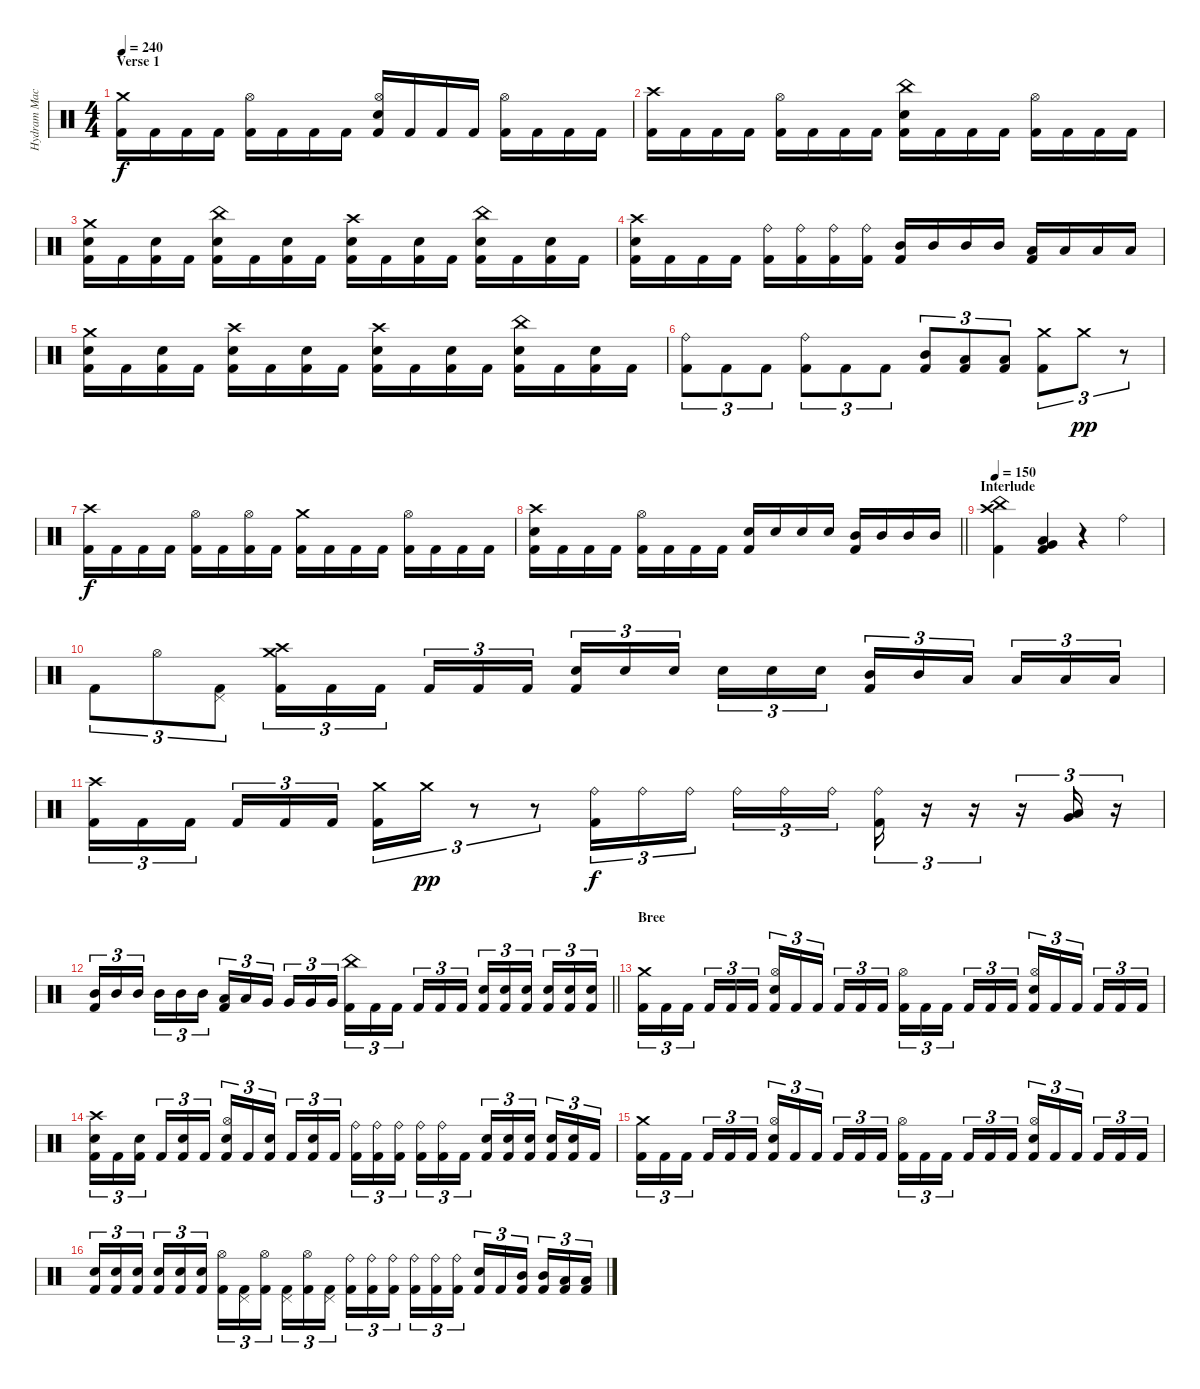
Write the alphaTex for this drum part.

\track ("Hydram Machine" "Hydram Mac") {instrument percussion}
\staff {score}
\articulation defaults
\ts (4 4)
\section ("" "Verse 1")
\tempo 240
\clef neutral
\ks c
("Crash medium (hit)" "Kick (hit) 2").16{dy f} "Kick (hit) 2".16 "Kick (hit) 2".16 "Kick (hit) 2".16 ("Hi-Hat (open)" "Kick (hit) 2").16 "Kick (hit) 2".16 "Kick (hit) 2".16 "Kick (hit) 2".16 ("Hi-Hat (open)" "Electric Snare (hit)" "Kick (hit) 2").16 "Kick (hit) 2".16 "Kick (hit) 2".16 "Kick (hit) 2".16 ("Hi-Hat (open)" "Kick (hit) 2").16 "Kick (hit) 2".16 "Kick (hit) 2".16 "Kick (hit) 2".16 |
("Crash high (hit)" "Kick (hit) 2").16 "Kick (hit) 2".16 "Kick (hit) 2".16 "Kick (hit) 2".16 ("Hi-Hat (open)" "Kick (hit) 2").16 "Kick (hit) 2".16 "Kick (hit) 2".16 "Kick (hit) 2".16 ("China (hit)" "Electric Snare (hit)" "Kick (hit) 2").16 "Kick (hit) 2".16 "Kick (hit) 2".16 "Kick (hit) 2".16 ("Hi-Hat (open)" "Kick (hit) 2").16 "Kick (hit) 2".16 "Kick (hit) 2".16 "Kick (hit) 2".16 |
("Crash medium (hit)" "Electric Snare (hit)" "Kick (hit) 2").16 "Kick (hit) 2".16 ("Electric Snare (hit)" "Kick (hit) 2").16 "Kick (hit) 2".16 ("China (hit)" "Electric Snare (hit)" "Kick (hit) 2").16 "Kick (hit) 2".16 ("Electric Snare (hit)" "Kick (hit) 2").16 "Kick (hit) 2".16 ("Crash high (hit)" "Electric Snare (hit)" "Kick (hit) 2").16 "Kick (hit) 2".16 ("Electric Snare (hit)" "Kick (hit) 2").16 "Kick (hit) 2".16 ("China (hit)" "Electric Snare (hit)" "Kick (hit) 2").16 "Kick (hit) 2".16 ("Electric Snare (hit)" "Kick (hit) 2").16 "Kick (hit) 2".16 |
("Crash high (hit)" "Electric Snare (hit)" "Kick (hit) 2").16 "Kick (hit) 2".16 "Kick (hit) 2".16 "Kick (hit) 2".16 ("Ride (bell)" "Kick (hit) 2").16 ("Ride (bell)" "Kick (hit) 2").16 ("Ride (bell)" "Kick (hit) 2").16 ("Ride (bell)" "Kick (hit) 2").16 ("Mid Tom (hit)" "Kick (hit) 2").16 "Mid Tom (hit)".16 "Mid Tom (hit)".16 "Mid Tom (hit)".16 ("Low Tom (hit)" "Kick (hit) 2").16 "Low Tom (hit)".16 "Low Tom (hit)".16 "Low Tom (hit)".16 |
("Crash medium (hit)" "Electric Snare (hit)" "Kick (hit) 2").16 "Kick (hit) 2".16 ("Electric Snare (hit)" "Kick (hit) 2").16 "Kick (hit) 2".16 ("Crash high (hit)" "Electric Snare (hit)" "Kick (hit) 2").16 "Kick (hit) 2".16 ("Electric Snare (hit)" "Kick (hit) 2").16 "Kick (hit) 2".16 ("Crash high (hit)" "Electric Snare (hit)" "Kick (hit) 2").16 "Kick (hit) 2".16 ("Electric Snare (hit)" "Kick (hit) 2").16 "Kick (hit) 2".16 ("China (hit)" "Electric Snare (hit)" "Kick (hit) 2").16 "Kick (hit) 2".16 ("Electric Snare (hit)" "Kick (hit) 2").16 "Kick (hit) 2".16 |
("Ride (bell)" "Kick (hit) 2").8{tu (3 2)} "Kick (hit) 2".8{tu (3 2)} "Kick (hit) 2".8{tu (3 2)} ("Ride (bell)" "Kick (hit) 2").8{tu (3 2)} "Kick (hit) 2".8{tu (3 2)} "Kick (hit) 2".8{tu (3 2)} ("Mid Tom (hit)" "Kick (hit) 2").8{tu (3 2)} ("Low Tom (hit)" "Kick (hit) 2").8{tu (3 2)} ("Low Tom (hit)" "Kick (hit) 2").8{tu (3 2)} ("Crash medium (hit)" "Kick (hit) 2").8{tu (3 2)} "Crash medium (hit)".8{tu (3 2) dy pp} r.8{tu (3 2)} |
("Crash high (hit)" "Kick (hit) 2").16{dy f} "Kick (hit) 2".16 "Kick (hit) 2".16 "Kick (hit) 2".16 ("Hi-Hat (open)" "Kick (hit) 2").16 "Kick (hit) 2".16 ("Hi-Hat (open)" "Kick (hit) 2").16 "Kick (hit) 2".16 ("Crash medium (hit)" "Kick (hit) 2").16 "Kick (hit) 2".16 "Kick (hit) 2".16 "Kick (hit) 2".16 ("Hi-Hat (open)" "Kick (hit) 2").16 "Kick (hit) 2".16 "Kick (hit) 2".16 "Kick (hit) 2".16 |
\barLineRight lightlight
("Crash high (hit)" "Electric Snare (hit)" "Kick (hit) 2").16 "Kick (hit) 2".16 "Kick (hit) 2".16 "Kick (hit) 2".16 ("Hi-Hat (open)" "Kick (hit) 2").16 "Kick (hit) 2".16 "Kick (hit) 2".16 "Kick (hit) 2".16 ("Electric Snare (hit)" "Kick (hit) 2").16 "Electric Snare (hit)".16 "Electric Snare (hit)".16 "Electric Snare (hit)".16 ("Mid Tom (hit)" "Kick (hit) 2").16 "Mid Tom (hit)".16 "Mid Tom (hit)".16 "Mid Tom (hit)".16 |
\section ("" "Interlude")
\tempo 150
("China (hit)" "Crash high (hit)" "Kick (hit) 2").4 ("Very Low Tom (hit)" "Low Floor Tom (hit)" "Kick (hit) 2").4 r.4 "Ride (bell)".4 |
"Kick (hit) 2".8{tu (3 2)} "Hi-Hat (open)".8{tu (3 2)} ("Pedal Hi-Hat (hit)" "Kick (hit) 2").8{tu (3 2)} ("Crash high (hit)" "Crash medium (hit)" "Kick (hit) 2").16{tu (3 2)} "Kick (hit) 2".16{tu (3 2)} "Kick (hit) 2".16{tu (3 2) beam splitsecondary} "Kick (hit) 2".16{tu (3 2)} "Kick (hit) 2".16{tu (3 2)} "Kick (hit) 2".16{tu (3 2)} ("Electric Snare (hit)" "Kick (hit) 2").16{tu (3 2)} "Electric Snare (hit)".16{tu (3 2)} "Electric Snare (hit)".16{tu (3 2) beam splitsecondary} "Electric Snare (hit)".16{tu (3 2)} "Electric Snare (hit)".16{tu (3 2)} "Electric Snare (hit)".16{tu (3 2)} ("Mid Tom (hit)" "Kick (hit) 2").16{tu (3 2)} "Mid Tom (hit)".16{tu (3 2)} "Low Tom (hit)".16{tu (3 2) beam splitsecondary} "Low Tom (hit)".16{tu (3 2)} "Low Tom (hit)".16{tu (3 2)} "Low Tom (hit)".16{tu (3 2)} |
("Crash high (hit)" "Kick (hit) 2").16{tu (3 2)} "Kick (hit) 2".16{tu (3 2)} "Kick (hit) 2".16{tu (3 2) beam splitsecondary} "Kick (hit) 2".16{tu (3 2)} "Kick (hit) 2".16{tu (3 2)} "Kick (hit) 2".16{tu (3 2)} ("Crash medium (hit)" "Kick (hit) 2").16{tu (3 2)} "Crash medium (hit)".16{tu (3 2) dy pp} r.8{tu (3 2)} r.8{tu (3 2)} ("Ride (bell)" "Kick (hit) 2").16{tu (3 2) dy f} "Ride (bell)".16{tu (3 2)} "Ride (bell)".16{tu (3 2) beam splitsecondary} "Ride (bell)".16{tu (3 2)} "Ride (bell)".16{tu (3 2)} "Ride (bell)".16{tu (3 2)} ("Ride (bell)" "Kick (hit) 2").16{tu (3 2)} r.16{tu (3 2)} r.16{tu (3 2)} r.16{tu (3 2)} ("Very Low Tom (hit)" "Low Floor Tom (hit)").16{tu (3 2)} r.16{tu (3 2)} |
\barLineRight lightlight
("Mid Tom (hit)" "Kick (hit) 2").16{tu (3 2)} "Mid Tom (hit)".16{tu (3 2)} "Mid Tom (hit)".16{tu (3 2) beam splitsecondary} "Mid Tom (hit)".16{tu (3 2)} "Mid Tom (hit)".16{tu (3 2)} "Mid Tom (hit)".16{tu (3 2)} ("Low Tom (hit)" "Kick (hit) 2").16{tu (3 2)} "Low Tom (hit)".16{tu (3 2)} "Very Low Tom (hit)".16{tu (3 2) beam splitsecondary} "Very Low Tom (hit)".16{tu (3 2)} "Very Low Tom (hit)".16{tu (3 2)} "Very Low Tom (hit)".16{tu (3 2)} ("China (hit)" "Kick (hit) 2").16{tu (3 2)} "Kick (hit) 2".16{tu (3 2)} "Kick (hit) 2".16{tu (3 2) beam splitsecondary} "Kick (hit) 2".16{tu (3 2)} "Kick (hit) 2".16{tu (3 2)} "Kick (hit) 2".16{tu (3 2)} ("Electric Snare (hit)" "Kick (hit) 2").16{tu (3 2)} ("Electric Snare (hit)" "Kick (hit) 2").16{tu (3 2)} ("Electric Snare (hit)" "Kick (hit) 2").16{tu (3 2) beam splitsecondary} ("Electric Snare (hit)" "Kick (hit) 2").16{tu (3 2)} ("Electric Snare (hit)" "Kick (hit) 2").16{tu (3 2)} ("Electric Snare (hit)" "Kick (hit) 2").16{tu (3 2)} |
\section ("" "Bree")
("Crash medium (hit)" "Kick (hit) 2").16{tu (3 2)} "Kick (hit) 2".16{tu (3 2)} "Kick (hit) 2".16{tu (3 2) beam splitsecondary} "Kick (hit) 2".16{tu (3 2)} "Kick (hit) 2".16{tu (3 2)} "Kick (hit) 2".16{tu (3 2)} ("Hi-Hat (open)" "Electric Snare (hit)" "Kick (hit) 2").16{tu (3 2)} "Kick (hit) 2".16{tu (3 2)} "Kick (hit) 2".16{tu (3 2) beam splitsecondary} "Kick (hit) 2".16{tu (3 2)} "Kick (hit) 2".16{tu (3 2)} "Kick (hit) 2".16{tu (3 2)} ("Hi-Hat (open)" "Kick (hit) 2").16{tu (3 2)} "Kick (hit) 2".16{tu (3 2)} "Kick (hit) 2".16{tu (3 2) beam splitsecondary} "Kick (hit) 2".16{tu (3 2)} "Kick (hit) 2".16{tu (3 2)} "Kick (hit) 2".16{tu (3 2)} ("Hi-Hat (open)" "Electric Snare (hit)" "Kick (hit) 2").16{tu (3 2)} "Kick (hit) 2".16{tu (3 2)} "Kick (hit) 2".16{tu (3 2) beam splitsecondary} "Kick (hit) 2".16{tu (3 2)} "Kick (hit) 2".16{tu (3 2)} "Kick (hit) 2".16{tu (3 2)} |
("Crash high (hit)" "Electric Snare (hit)" "Kick (hit) 2").16{tu (3 2)} "Kick (hit) 2".16{tu (3 2)} ("Electric Snare (hit)" "Kick (hit) 2").16{tu (3 2) beam splitsecondary} "Kick (hit) 2".16{tu (3 2)} ("Electric Snare (hit)" "Kick (hit) 2").16{tu (3 2)} "Kick (hit) 2".16{tu (3 2)} ("Hi-Hat (open)" "Electric Snare (hit)" "Kick (hit) 2").16{tu (3 2)} "Kick (hit) 2".16{tu (3 2)} ("Electric Snare (hit)" "Kick (hit) 2").16{tu (3 2) beam splitsecondary} "Kick (hit) 2".16{tu (3 2)} ("Electric Snare (hit)" "Kick (hit) 2").16{tu (3 2)} "Kick (hit) 2".16{tu (3 2)} ("Ride (bell)" "Kick (hit) 2").16{tu (3 2)} ("Ride (bell)" "Kick (hit) 2").16{tu (3 2)} ("Ride (bell)" "Kick (hit) 2").16{tu (3 2) beam splitsecondary} ("Ride (bell)" "Kick (hit) 2").16{tu (3 2)} ("Ride (bell)" "Kick (hit) 2").16{tu (3 2)} "Kick (hit) 2".16{tu (3 2)} ("Electric Snare (hit)" "Kick (hit) 2").16{tu (3 2)} ("Electric Snare (hit)" "Kick (hit) 2").16{tu (3 2)} ("Electric Snare (hit)" "Kick (hit) 2").16{tu (3 2) beam splitsecondary} ("Electric Snare (hit)" "Kick (hit) 2").16{tu (3 2)} ("Electric Snare (hit)" "Kick (hit) 2").16{tu (3 2)} "Kick (hit) 2".16{tu (3 2)} |
("Crash medium (hit)" "Kick (hit) 2").16{tu (3 2)} "Kick (hit) 2".16{tu (3 2)} "Kick (hit) 2".16{tu (3 2) beam splitsecondary} "Kick (hit) 2".16{tu (3 2)} "Kick (hit) 2".16{tu (3 2)} "Kick (hit) 2".16{tu (3 2)} ("Hi-Hat (open)" "Electric Snare (hit)" "Kick (hit) 2").16{tu (3 2)} "Kick (hit) 2".16{tu (3 2)} "Kick (hit) 2".16{tu (3 2) beam splitsecondary} "Kick (hit) 2".16{tu (3 2)} "Kick (hit) 2".16{tu (3 2)} "Kick (hit) 2".16{tu (3 2)} ("Hi-Hat (open)" "Kick (hit) 2").16{tu (3 2)} "Kick (hit) 2".16{tu (3 2)} "Kick (hit) 2".16{tu (3 2) beam splitsecondary} "Kick (hit) 2".16{tu (3 2)} "Kick (hit) 2".16{tu (3 2)} "Kick (hit) 2".16{tu (3 2)} ("Hi-Hat (open)" "Electric Snare (hit)" "Kick (hit) 2").16{tu (3 2)} "Kick (hit) 2".16{tu (3 2)} "Kick (hit) 2".16{tu (3 2) beam splitsecondary} "Kick (hit) 2".16{tu (3 2)} "Kick (hit) 2".16{tu (3 2)} "Kick (hit) 2".16{tu (3 2)} |
("Electric Snare (hit)" "Kick (hit) 2").16{tu (3 2)} ("Electric Snare (hit)" "Kick (hit) 2").16{tu (3 2)} ("Electric Snare (hit)" "Kick (hit) 2").16{tu (3 2) beam splitsecondary} ("Electric Snare (hit)" "Kick (hit) 2").16{tu (3 2)} ("Electric Snare (hit)" "Kick (hit) 2").16{tu (3 2)} ("Electric Snare (hit)" "Kick (hit) 2").16{tu (3 2)} ("Hi-Hat (open)" "Kick (hit) 2").16{tu (3 2)} ("Pedal Hi-Hat (hit)" "Kick (hit) 2").16{tu (3 2)} ("Hi-Hat (open)" "Kick (hit) 2").16{tu (3 2) beam splitsecondary} ("Pedal Hi-Hat (hit)" "Kick (hit) 2").16{tu (3 2)} ("Hi-Hat (open)" "Kick (hit) 2").16{tu (3 2)} ("Pedal Hi-Hat (hit)" "Kick (hit) 2").16{tu (3 2)} ("Ride (bell)" "Kick (hit) 2").16{tu (3 2)} ("Ride (bell)" "Kick (hit) 2").16{tu (3 2)} ("Ride (bell)" "Kick (hit) 2").16{tu (3 2) beam splitsecondary} ("Ride (bell)" "Kick (hit) 2").16{tu (3 2)} ("Ride (bell)" "Kick (hit) 2").16{tu (3 2)} ("Ride (bell)" "Kick (hit) 2").16{tu (3 2)} ("Electric Snare (hit)" "Kick (hit) 2").16{tu (3 2)} "Kick (hit) 2".16{tu (3 2)} ("Mid Tom (hit)" "Kick (hit) 2").16{tu (3 2) beam splitsecondary} ("Mid Tom (hit)" "Kick (hit) 2").16{tu (3 2)} ("Low Tom (hit)" "Kick (hit) 2").16{tu (3 2)} ("Low Tom (hit)" "Kick (hit) 2").16{tu (3 2)}
